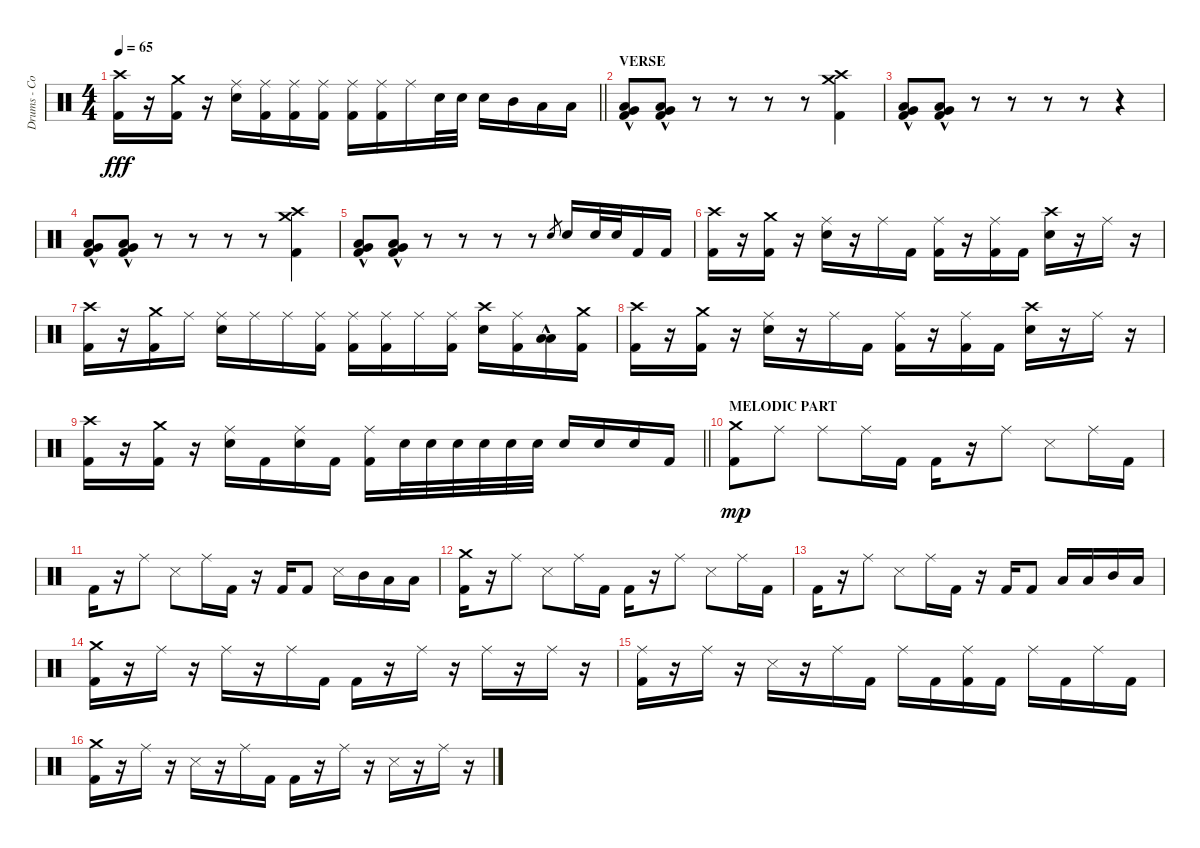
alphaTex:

\track ("Drums - Cozy Powell" "Drums - Co") {instrument percussion}
\staff {score}
\articulation defaults
\ts (4 4)
\tempo 65
\clef neutral
\barLineRight lightlight
\ks c
("Crash high (hit)" "Kick (hit) 2").16{dy fff} r.16 ("Crash medium (hit)" "Kick (hit) 2").16 r.16 ("Ride (middle)" "Snare (hit) 2").16 ("Ride (middle)" "Kick (hit) 2").16 ("Ride (middle)" "Kick (hit) 2").16 ("Ride (middle)" "Kick (hit) 2").16 ("Ride (middle)" "Kick (hit) 2").16 ("Ride (middle)" "Kick (hit) 2").16 "Ride (middle)".16 "Snare (hit) 2".32 "Snare (hit) 2".32 "Snare (hit) 2".16 "Mid Tom (hit)".16 "Low Tom (hit)".16 "Low Floor Tom (hit)".16 |
\section ("" "VERSE")
("Very Low Tom (hit)"{hac} "Low Floor Tom (hit)"{hac} "Kick (hit) 2"{hac}).8 ("Very Low Tom (hit)"{hac} "Low Floor Tom (hit)"{hac} "Kick (hit) 2"{hac}).8 r.8 r.8 r.8 r.8 ("Crash medium (hit)" "Crash high (hit)" "Kick (hit) 2").4 |
("Very Low Tom (hit)"{hac} "Low Floor Tom (hit)"{hac} "Kick (hit) 2"{hac}).8 ("Very Low Tom (hit)"{hac} "Low Floor Tom (hit)"{hac} "Kick (hit) 2"{hac}).8 r.8 r.8 r.8 r.8 r.4 |
("Very Low Tom (hit)"{hac} "Low Floor Tom (hit)"{hac} "Kick (hit) 2"{hac}).8 ("Very Low Tom (hit)"{hac} "Low Floor Tom (hit)"{hac} "Kick (hit) 2"{hac}).8 r.8 r.8 r.8 r.8 ("Crash medium (hit)" "Crash high (hit)" "Kick (hit) 2").4 |
("Very Low Tom (hit)"{hac} "Low Floor Tom (hit)"{hac} "Kick (hit) 2"{hac}).8 ("Very Low Tom (hit)"{hac} "Low Floor Tom (hit)"{hac} "Kick (hit) 2"{hac}).8 r.8 r.8 r.8 r.8 "Snare (hit) 2".8{gr} "Snare (hit) 2".16 "Snare (hit) 2".32 "Snare (hit) 2".32 "Kick (hit) 2".16 "Kick (hit) 2".16 |
("Crash high (hit)" "Kick (hit) 2").16 r.16 ("Crash medium (hit)" "Kick (hit) 2").16 r.16 ("Ride (middle)" "Snare (hit) 2").16 r.16 "Ride (middle)".16 "Kick (hit) 2".16 ("Ride (middle)" "Kick (hit) 2").16 r.16 ("Ride (middle)" "Kick (hit) 2").16 "Kick (hit) 2".16 ("Crash high (hit)" "Snare (hit) 2").16 r.16 "Ride (middle)".16 r.16 |
("Crash high (hit)" "Kick (hit) 2").16 r.16 ("Crash medium (hit)" "Kick (hit) 2").16 "Ride (middle)".16 ("Ride (middle)" "Snare (hit) 2").16 "Ride (middle)".16 "Ride (middle)".16 ("Ride (middle)" "Kick (hit) 2").16 ("Ride (middle)" "Kick (hit) 2").16 ("Ride (middle)" "Kick (hit) 2").16 "Ride (middle)".16 ("Ride (middle)" "Kick (hit) 2").16 ("Crash high (hit)" "Snare (hit) 2").16 ("Ride (middle)" "Kick (hit) 2").16 ("Low Floor Tom (hit)"{hac} "Low Floor Tom (hit)"{hac}).16 ("Crash medium (hit)" "Kick (hit) 2").16 |
("Crash high (hit)" "Kick (hit) 2").16 r.16 ("Crash medium (hit)" "Kick (hit) 2").16 r.16 ("Ride (middle)" "Snare (hit) 2").16 r.16 "Ride (middle)".16 "Kick (hit) 2".16 ("Ride (middle)" "Kick (hit) 2").16 r.16 ("Ride (middle)" "Kick (hit) 2").16 "Kick (hit) 2".16 ("Crash high (hit)" "Snare (hit) 2").16 r.16 "Ride (middle)".16 r.16 |
\barLineRight lightlight
("Crash high (hit)" "Kick (hit) 2").16 r.16 ("Crash medium (hit)" "Kick (hit) 2").16 r.16 ("Ride (middle)" "Snare (hit) 2").16 "Kick (hit) 2".16 ("Ride (middle)" "Snare (hit) 2").16 "Kick (hit) 2".16 ("Ride (middle)" "Kick (hit) 2").16 "Snare (hit) 2".32 "Snare (hit) 2".32 "Snare (hit) 2".32 "Snare (hit) 2".32 "Snare (hit) 2".32 "Snare (hit) 2".32 "Snare (hit) 2".16 "Snare (hit) 2".16 "Snare (hit) 2".16 "Kick (hit) 2".16 |
\section ("" "MELODIC PART")
("Crash medium (hit)" "Kick (hit) 2").8{dy mp} "Ride (middle)".8 "Ride (middle)".8 "Ride (middle)".16 "Kick (hit) 2".16 "Kick (hit) 2".16 r.16 "Ride (middle)".8 "Snare (side stick) 3".8 "Ride (middle)".16 "Kick (hit) 2".16 |
"Kick (hit) 2".16 r.16 "Ride (middle)".8 "Snare (side stick) 3".8 "Ride (middle)".16 "Kick (hit) 2".16 r.16 "Kick (hit) 2".16 "Kick (hit) 2".8 "Snare (side stick) 3".16 "Mid Tom (hit)".16 "Low Tom (hit)".16 "Low Floor Tom (hit)".16 |
("Crash medium (hit)" "Kick (hit) 2").16 r.16 "Ride (middle)".8 "Snare (side stick) 3".8 "Ride (middle)".16 "Kick (hit) 2".16 "Kick (hit) 2".16 r.16 "Ride (middle)".8 "Snare (side stick) 3".8 "Ride (middle)".16 "Kick (hit) 2".16 |
"Kick (hit) 2".16 r.16 "Ride (middle)".8 "Snare (side stick) 3".8 "Ride (middle)".16 "Kick (hit) 2".16 r.16 "Kick (hit) 2".16 "Kick (hit) 2".8 "Low Tom (hit)".16 "Low Tom (hit)".16 "Mid Tom (hit)".16 "Low Floor Tom (hit)".16 |
("Crash medium (hit)" "Kick (hit) 2").16 r.16 "Ride (middle)".16 r.16 "Ride (middle)".16 r.16 "Ride (middle)".16 "Kick (hit) 2".16 "Kick (hit) 2".16 r.16 "Ride (middle)".16 r.16 "Ride (middle)".16 r.16 "Ride (middle)".16 r.16 |
("Ride (middle)" "Kick (hit) 2").16 r.16 "Ride (middle)".16 r.16 "Snare (side stick) 3".16 r.16 "Ride (middle)".16 "Kick (hit) 2".16 "Ride (middle)".16 "Kick (hit) 2".16 ("Ride (middle)" "Kick (hit) 2").16 "Kick (hit) 2".16 "Ride (middle)".16 "Kick (hit) 2".16 "Ride (middle)".16 "Kick (hit) 2".16 |
("Crash medium (hit)" "Kick (hit) 2").16 r.16 "Ride (middle)".16 r.16 "Snare (side stick) 3".16 r.16 "Ride (middle)".16 "Kick (hit) 2".16 "Kick (hit) 2".16 r.16 "Ride (middle)".16 r.16 "Snare (side stick) 3".16 r.16 "Ride (middle)".16 r.16
